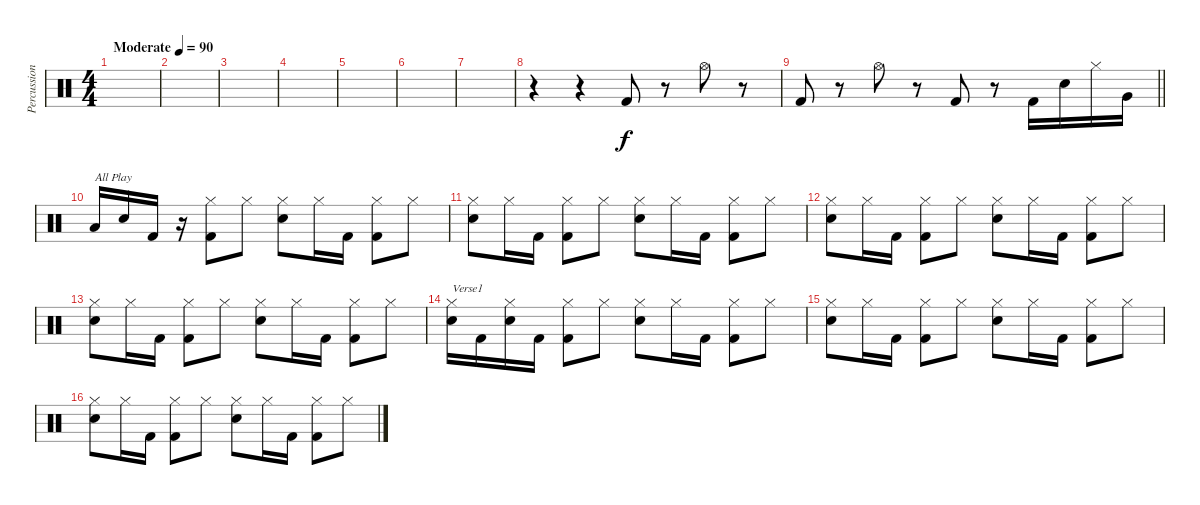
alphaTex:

\track ("Percussion" "Percussion") {instrument percussion}
\staff {score}
\articulation defaults
\ts (4 4)
\tempo (90 "Moderate")
\clef neutral
\ks c
|
|
|
|
|
|
|
r.4 r.4 "Kick (hit) 2".8 r.8 "Hi-Hat (open)".8 r.8 |
\barLineRight lightlight "Kick (hit) 2".8
r.8 "Hi-Hat (open)".8 r.8 "Kick (hit) 2".8 r.8 "Kick (hit) 2".16 "Snare (hit) 2".16 "Hi-Hat (closed)".16 "Very Low Tom (hit)".16 |
"Low Floor Tom (hit)".16{txt "All Play"} "Snare (hit) 2".16 "Kick (hit) 2".16 r.16 ("Hi-Hat (closed)" "Kick (hit) 2").8 "Hi-Hat (closed)".8 ("Hi-Hat (closed)" "Snare (hit) 2").8 "Hi-Hat (closed)".16 "Kick (hit) 2".16 ("Hi-Hat (closed)" "Kick (hit) 2").8 "Hi-Hat (closed)".8 |
("Hi-Hat (closed)" "Snare (hit) 2").8 "Hi-Hat (closed)".16 "Kick (hit) 2".16 ("Hi-Hat (closed)" "Kick (hit) 2").8 "Hi-Hat (closed)".8 ("Hi-Hat (closed)" "Snare (hit) 2").8 "Hi-Hat (closed)".16 "Kick (hit) 2".16 ("Hi-Hat (closed)" "Kick (hit) 2").8 "Hi-Hat (closed)".8 |
("Hi-Hat (closed)" "Snare (hit) 2").8 "Hi-Hat (closed)".16 "Kick (hit) 2".16 ("Hi-Hat (closed)" "Kick (hit) 2").8 "Hi-Hat (closed)".8 ("Hi-Hat (closed)" "Snare (hit) 2").8 "Hi-Hat (closed)".16 "Kick (hit) 2".16 ("Hi-Hat (closed)" "Kick (hit) 2").8 "Hi-Hat (closed)".8 |
("Hi-Hat (closed)" "Snare (hit) 2").8 "Hi-Hat (closed)".16 "Kick (hit) 2".16 ("Hi-Hat (closed)" "Kick (hit) 2").8 "Hi-Hat (closed)".8 ("Hi-Hat (closed)" "Snare (hit) 2").8 "Hi-Hat (closed)".16 "Kick (hit) 2".16 ("Hi-Hat (closed)" "Kick (hit) 2").8 "Hi-Hat (closed)".8 |
("Hi-Hat (closed)" "Snare (hit) 2").16{txt "Verse1"} "Kick (hit) 2".16 ("Hi-Hat (closed)" "Snare (hit) 2").16 "Kick (hit) 2".16 ("Hi-Hat (closed)" "Kick (hit) 2").8 "Hi-Hat (closed)".8 ("Hi-Hat (closed)" "Snare (hit) 2").8 "Hi-Hat (closed)".16 "Kick (hit) 2".16 ("Hi-Hat (closed)" "Kick (hit) 2").8 "Hi-Hat (closed)".8 |
("Hi-Hat (closed)" "Snare (hit) 2").8 "Hi-Hat (closed)".16 "Kick (hit) 2".16 ("Hi-Hat (closed)" "Kick (hit) 2").8 "Hi-Hat (closed)".8 ("Hi-Hat (closed)" "Snare (hit) 2").8 "Hi-Hat (closed)".16 "Kick (hit) 2".16 ("Hi-Hat (closed)" "Kick (hit) 2").8 "Hi-Hat (closed)".8 |
("Hi-Hat (closed)" "Snare (hit) 2").8 "Hi-Hat (closed)".16 "Kick (hit) 2".16 ("Hi-Hat (closed)" "Kick (hit) 2").8 "Hi-Hat (closed)".8 ("Hi-Hat (closed)" "Snare (hit) 2").8 "Hi-Hat (closed)".16 "Kick (hit) 2".16 ("Hi-Hat (closed)" "Kick (hit) 2").8 "Hi-Hat (closed)".8
